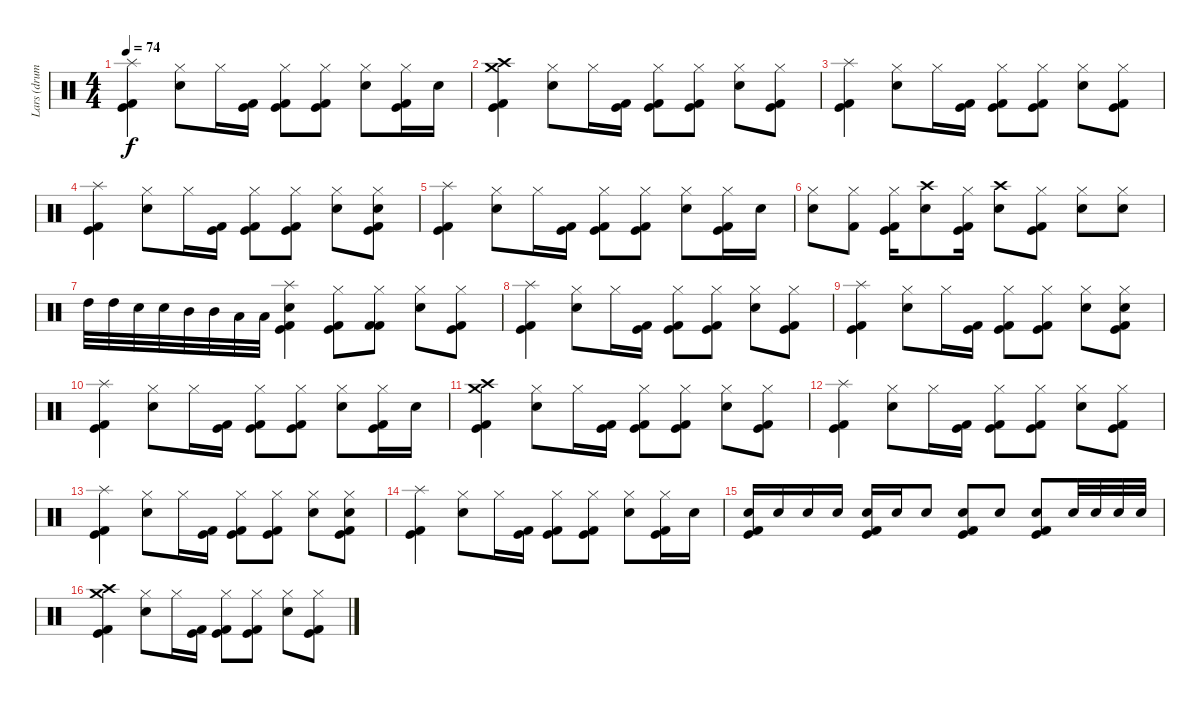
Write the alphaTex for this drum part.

\track ("Lars (drums)" "Lars (drum") {instrument percussion}
\staff {score}
\articulation defaults
\ts (4 4)
\tempo 74
\clef neutral
\ks c
("Splash (hit)" "Kick (hit) 2" "Kick (hit)").4{dy f} ("Hi-Hat (closed)" "Electric Snare (hit)").8 "Hi-Hat (closed)".16 ("Kick (hit) 2" "Kick (hit)").16 ("Hi-Hat (closed)" "Kick (hit) 2" "Kick (hit)").8 ("Hi-Hat (closed)" "Kick (hit)" "Kick (hit) 2").8 ("Hi-Hat (closed)" "Electric Snare (hit)").8 ("Hi-Hat (closed)" "Kick (hit) 2" "Kick (hit)").16 "Electric Snare (hit)".16 |
("Crash medium (hit)" "Crash high (hit)" "Kick (hit) 2" "Kick (hit)").4 ("Hi-Hat (closed)" "Electric Snare (hit)").8 "Hi-Hat (closed)".16 ("Kick (hit) 2" "Kick (hit)").16 ("Hi-Hat (closed)" "Kick (hit) 2" "Kick (hit)").8 ("Hi-Hat (closed)" "Kick (hit)" "Kick (hit) 2").8 ("Hi-Hat (closed)" "Electric Snare (hit)").8 ("Hi-Hat (closed)" "Kick (hit) 2" "Kick (hit)").8 |
("Splash (hit)" "Kick (hit) 2" "Kick (hit)").4 ("Hi-Hat (closed)" "Electric Snare (hit)").8 "Hi-Hat (closed)".16 ("Kick (hit) 2" "Kick (hit)").16 ("Hi-Hat (closed)" "Kick (hit) 2" "Kick (hit)").8 ("Hi-Hat (closed)" "Kick (hit)" "Kick (hit) 2").8 ("Hi-Hat (closed)" "Electric Snare (hit)").8 ("Hi-Hat (closed)" "Kick (hit) 2" "Kick (hit)").8 |
("Splash (hit)" "Kick (hit) 2" "Kick (hit)").4 ("Hi-Hat (closed)" "Electric Snare (hit)").8 "Hi-Hat (closed)".16 ("Kick (hit) 2" "Kick (hit)").16 ("Hi-Hat (closed)" "Kick (hit) 2" "Kick (hit)").8 ("Hi-Hat (closed)" "Kick (hit)" "Kick (hit) 2").8 ("Hi-Hat (closed)" "Electric Snare (hit)").8 ("Hi-Hat (closed)" "Electric Snare (hit)" "Kick (hit) 2" "Kick (hit)").8 |
("Splash (hit)" "Kick (hit) 2" "Kick (hit)").4 ("Hi-Hat (closed)" "Electric Snare (hit)").8 "Hi-Hat (closed)".16 ("Kick (hit) 2" "Kick (hit)").16 ("Hi-Hat (closed)" "Kick (hit) 2" "Kick (hit)").8 ("Hi-Hat (closed)" "Kick (hit)" "Kick (hit) 2").8 ("Hi-Hat (closed)" "Electric Snare (hit)").8 ("Hi-Hat (closed)" "Kick (hit) 2" "Kick (hit)").16 "Electric Snare (hit)".16 |
("Hi-Hat (closed)" "Snare (hit) 2").8 ("Hi-Hat (closed)" "Kick (hit) 2").8 ("Hi-Hat (closed)" "Kick (hit) 2" "Kick (hit)").16 ("Crash high (hit)" "Snare (hit) 2").8 ("Hi-Hat (closed)" "Kick (hit) 2" "Kick (hit)").16 ("Crash high (hit)" "Snare (hit) 2").8 ("Hi-Hat (closed)" "Kick (hit) 2" "Kick (hit)").8 ("Hi-Hat (closed)" "Snare (hit) 2").8 ("Hi-Hat (closed)" "Snare (hit) 2").8 |
"High Tom (hit)".32 "High Tom (hit)".32 "Electric Snare (hit)".32 "Electric Snare (hit)".32 "Mid Tom (hit)".32 "Mid Tom (hit)".32 "Low Floor Tom (hit)".32 "Low Floor Tom (hit)".32 ("Splash (hit)" "Electric Snare (hit)" "Kick (hit) 2" "Kick (hit)").4 ("Hi-Hat (closed)" "Kick (hit) 2" "Kick (hit)").8 ("Hi-Hat (closed)" "Kick (hit) 2" "Kick (hit) 2").8 ("Hi-Hat (closed)" "Electric Snare (hit)").8 ("Hi-Hat (closed)" "Kick (hit) 2" "Kick (hit)").8 |
("Splash (hit)" "Kick (hit) 2" "Kick (hit)").4 ("Hi-Hat (closed)" "Electric Snare (hit)").8 "Hi-Hat (closed)".16 ("Kick (hit) 2" "Kick (hit)").16 ("Hi-Hat (closed)" "Kick (hit) 2" "Kick (hit)").8 ("Hi-Hat (closed)" "Kick (hit)" "Kick (hit) 2").8 ("Hi-Hat (closed)" "Electric Snare (hit)").8 ("Hi-Hat (closed)" "Kick (hit) 2" "Kick (hit)").8 |
("Splash (hit)" "Kick (hit) 2" "Kick (hit)").4 ("Hi-Hat (closed)" "Electric Snare (hit)").8 "Hi-Hat (closed)".16 ("Kick (hit) 2" "Kick (hit)").16 ("Hi-Hat (closed)" "Kick (hit) 2" "Kick (hit)").8 ("Hi-Hat (closed)" "Kick (hit)" "Kick (hit) 2").8 ("Hi-Hat (closed)" "Electric Snare (hit)").8 ("Hi-Hat (closed)" "Electric Snare (hit)" "Kick (hit) 2" "Kick (hit)").8 |
("Splash (hit)" "Kick (hit) 2" "Kick (hit)").4 ("Hi-Hat (closed)" "Electric Snare (hit)").8 "Hi-Hat (closed)".16 ("Kick (hit) 2" "Kick (hit)").16 ("Hi-Hat (closed)" "Kick (hit) 2" "Kick (hit)").8 ("Hi-Hat (closed)" "Kick (hit)" "Kick (hit) 2").8 ("Hi-Hat (closed)" "Electric Snare (hit)").8 ("Hi-Hat (closed)" "Kick (hit) 2" "Kick (hit)").16 "Electric Snare (hit)".16 |
("Crash medium (hit)" "Crash high (hit)" "Kick (hit) 2" "Kick (hit)").4 ("Hi-Hat (closed)" "Electric Snare (hit)").8 "Hi-Hat (closed)".16 ("Kick (hit) 2" "Kick (hit)").16 ("Hi-Hat (closed)" "Kick (hit) 2" "Kick (hit)").8 ("Hi-Hat (closed)" "Kick (hit)" "Kick (hit) 2").8 ("Hi-Hat (closed)" "Electric Snare (hit)").8 ("Hi-Hat (closed)" "Kick (hit) 2" "Kick (hit)").8 |
("Splash (hit)" "Kick (hit) 2" "Kick (hit)").4 ("Hi-Hat (closed)" "Electric Snare (hit)").8 "Hi-Hat (closed)".16 ("Kick (hit) 2" "Kick (hit)").16 ("Hi-Hat (closed)" "Kick (hit) 2" "Kick (hit)").8 ("Hi-Hat (closed)" "Kick (hit)" "Kick (hit) 2").8 ("Hi-Hat (closed)" "Electric Snare (hit)").8 ("Hi-Hat (closed)" "Kick (hit) 2" "Kick (hit)").8 |
("Splash (hit)" "Kick (hit) 2" "Kick (hit)").4 ("Hi-Hat (closed)" "Electric Snare (hit)").8 "Hi-Hat (closed)".16 ("Kick (hit) 2" "Kick (hit)").16 ("Hi-Hat (closed)" "Kick (hit) 2" "Kick (hit)").8 ("Hi-Hat (closed)" "Kick (hit)" "Kick (hit) 2").8 ("Hi-Hat (closed)" "Electric Snare (hit)").8 ("Hi-Hat (closed)" "Electric Snare (hit)" "Kick (hit) 2" "Kick (hit)").8 |
("Splash (hit)" "Kick (hit) 2" "Kick (hit)").4 ("Hi-Hat (closed)" "Electric Snare (hit)").8 "Hi-Hat (closed)".16 ("Kick (hit) 2" "Kick (hit)").16 ("Hi-Hat (closed)" "Kick (hit) 2" "Kick (hit)").8 ("Hi-Hat (closed)" "Kick (hit)" "Kick (hit) 2").8 ("Hi-Hat (closed)" "Electric Snare (hit)").8 ("Hi-Hat (closed)" "Kick (hit) 2" "Kick (hit)").16 "Electric Snare (hit)".16 |
("Electric Snare (hit)" "Kick (hit) 2" "Kick (hit)").16 "Electric Snare (hit)".16 "Electric Snare (hit)".16 "Electric Snare (hit)".16 ("Electric Snare (hit)" "Kick (hit) 2" "Kick (hit)").16 "Electric Snare (hit)".16 "Electric Snare (hit)".8 ("Electric Snare (hit)" "Kick (hit) 2" "Kick (hit)").8 "Electric Snare (hit)".8 ("Electric Snare (hit)" "Kick (hit) 2" "Kick (hit)").8 "Electric Snare (hit)".32 "Electric Snare (hit)".32 "Electric Snare (hit)".32 "Electric Snare (hit)".32 |
("Crash medium (hit)" "Crash high (hit)" "Kick (hit) 2" "Kick (hit)").4 ("Hi-Hat (closed)" "Electric Snare (hit)").8 "Hi-Hat (closed)".16 ("Kick (hit) 2" "Kick (hit)").16 ("Hi-Hat (closed)" "Kick (hit) 2" "Kick (hit)").8 ("Hi-Hat (closed)" "Kick (hit)" "Kick (hit) 2").8 ("Hi-Hat (closed)" "Electric Snare (hit)").8 ("Hi-Hat (closed)" "Kick (hit) 2" "Kick (hit)").8
